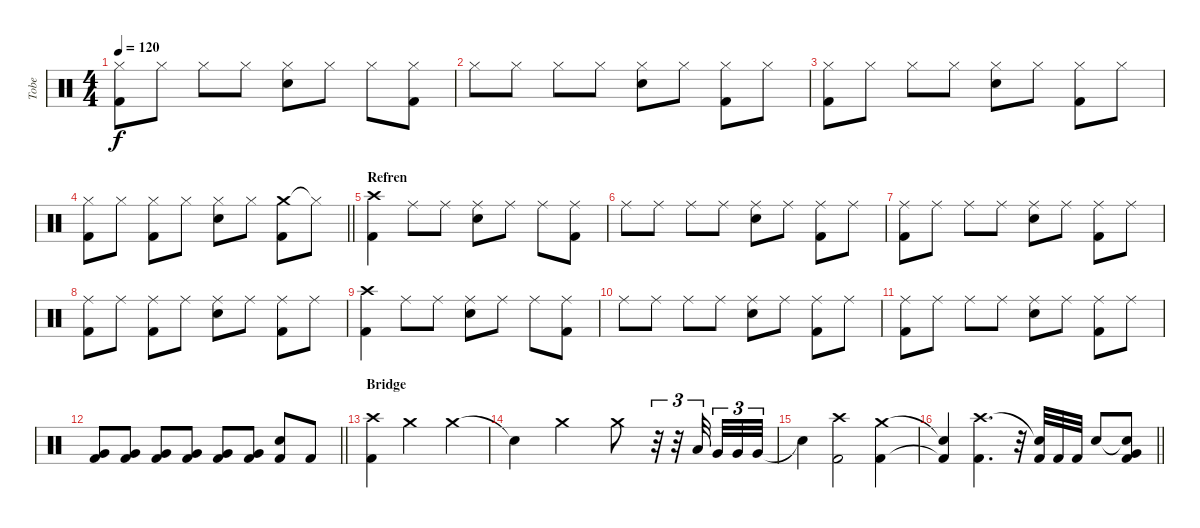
\track ("Tobe" "Tobe") {instrument percussion}
\staff {score}
\articulation defaults
\ts (4 4)
\tempo 120
\clef neutral
\ks c
("Hi-Hat (closed)" "Kick (hit) 2").8{dy f} "Hi-Hat (closed)".8 "Hi-Hat (closed)".8 "Hi-Hat (closed)".8 ("Hi-Hat (closed)" "Snare (hit) 2").8 "Hi-Hat (closed)".8 "Hi-Hat (closed)".8 ("Hi-Hat (closed)" "Kick (hit) 2").8 |
"Hi-Hat (closed)".8 "Hi-Hat (closed)".8 "Hi-Hat (closed)".8 "Hi-Hat (closed)".8 ("Hi-Hat (closed)" "Snare (hit) 2").8 "Hi-Hat (closed)".8 ("Hi-Hat (closed)" "Kick (hit) 2").8 "Hi-Hat (closed)".8 |
("Hi-Hat (closed)" "Kick (hit) 2").8 "Hi-Hat (closed)".8 "Hi-Hat (closed)".8 "Hi-Hat (closed)".8 ("Hi-Hat (closed)" "Snare (hit) 2").8 "Hi-Hat (closed)".8 ("Hi-Hat (closed)" "Kick (hit) 2").8 "Hi-Hat (closed)".8 |
\barLineRight lightlight
("Hi-Hat (closed)" "Kick (hit) 2").8 "Hi-Hat (closed)".8 ("Hi-Hat (closed)" "Kick (hit) 2").8 "Hi-Hat (closed)".8 ("Hi-Hat (closed)" "Snare (hit) 2").8 "Hi-Hat (closed)".8 ("Crash medium (hit)" "Kick (hit) 2").8 "Hi-Hat (closed)"{t}.8 |
\section ("" "Refren")
("Crash high (hit)" "Kick (hit) 2").4 "Ride (middle)".8 "Ride (middle)".8 ("Ride (middle)" "Snare (hit) 2").8 "Ride (middle)".8 "Ride (middle)".8 ("Ride (middle)" "Kick (hit) 2").8 |
"Ride (middle)".8 "Ride (middle)".8 "Ride (middle)".8 "Ride (middle)".8 ("Ride (middle)" "Snare (hit) 2").8 "Ride (middle)".8 ("Ride (middle)" "Kick (hit) 2").8 "Ride (middle)".8 |
("Ride (middle)" "Kick (hit) 2").8 "Ride (middle)".8 "Ride (middle)".8 "Ride (middle)".8 ("Ride (middle)" "Snare (hit) 2").8 "Ride (middle)".8 ("Ride (middle)" "Kick (hit) 2").8 "Ride (middle)".8 |
("Ride (middle)" "Kick (hit) 2").8 "Ride (middle)".8 ("Ride (middle)" "Kick (hit) 2").8 "Ride (middle)".8 ("Ride (middle)" "Snare (hit) 2").8 "Ride (middle)".8 ("Ride (middle)" "Kick (hit) 2").8 "Ride (middle)".8 |
("Crash high (hit)" "Kick (hit) 2").4 "Ride (middle)".8 "Ride (middle)".8 ("Ride (middle)" "Snare (hit) 2").8 "Ride (middle)".8 "Ride (middle)".8 ("Ride (middle)" "Kick (hit) 2").8 |
"Ride (middle)".8 "Ride (middle)".8 "Ride (middle)".8 "Ride (middle)".8 ("Ride (middle)" "Snare (hit) 2").8 "Ride (middle)".8 ("Ride (middle)" "Kick (hit) 2").8 "Ride (middle)".8 |
("Ride (middle)" "Kick (hit) 2").8 "Ride (middle)".8 "Ride (middle)".8 "Ride (middle)".8 ("Ride (middle)" "Snare (hit) 2").8 "Ride (middle)".8 ("Ride (middle)" "Kick (hit) 2").8 "Ride (middle)".8 |
\barLineRight lightlight
("Very Low Tom (hit)" "Kick (hit) 2").8 ("Very Low Tom (hit)" "Kick (hit) 2").8 ("Very Low Tom (hit)" "Kick (hit) 2").8 ("Very Low Tom (hit)" "Kick (hit) 2").8 ("Very Low Tom (hit)" "Kick (hit) 2").8 ("Very Low Tom (hit)" "Kick (hit) 2").8 ("Snare (hit) 2" "Kick (hit) 2").8 "Kick (hit) 2".8 |
\section ("" "Bridge")
("Crash high (hit)" "Kick (hit) 2").4 "Crash medium (hit)".2 "Crash medium (hit)".4 |
"Snare (hit)"{t}.4 "Crash medium (hit)".2 "Crash medium (hit)".8 r.32{tu (3 2)} r.32{tu (3 2)} "Low Tom (hit)".32{tu (3 2) beam splitsecondary} "Very Low Tom (hit)".32{tu (3 2)} "Very Low Tom (hit)".32{tu (3 2)} "Very Low Tom (hit)".32{tu (3 2)} |
"Snare (hit)"{t}.4 ("Crash high (hit)" "Kick (hit) 2").2 ("Crash medium (hit)" "Kick (hit) 2").4 |
\barLineRight lightlight
("Snare (hit)"{t} "Kick (hit) 2"{t}).4 ("Crash high (hit)" "Kick (hit) 2").4{d} r.32 ("Snare (hit)"{t} "Kick (hit) 2").32 "Kick (hit) 2".32 "Kick (hit) 2".32 "Snare (hit) 2".8 ("Snare (hit)"{t} "Very Low Tom (hit)" "Kick (hit) 2").8
